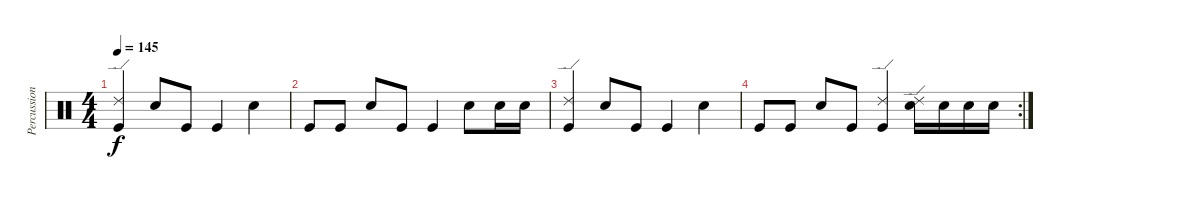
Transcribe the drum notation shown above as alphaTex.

\track ("Percussion" "Percussion") {instrument percussion}
\staff {score}
\articulation defaults
\ts (4 4)
\tempo 145
\clef neutral
\ks c
("Ride (edge) 2" "Kick (hit)").4{dy f} "Snare (hit) 2".8 "Kick (hit)".8 "Kick (hit)".4 "Snare (hit) 2".4 |
"Kick (hit)".8 "Kick (hit)".8 "Snare (hit) 2".8 "Kick (hit)".8 "Kick (hit)".4 "Snare (hit) 2".8 "Snare (hit) 2".16 "Snare (hit) 2".16 |
("Ride (edge) 2" "Kick (hit)").4 "Snare (hit) 2".8 "Kick (hit)".8 "Kick (hit)".4 "Snare (hit) 2".4 |
\rc 2 "Kick (hit)".8 "Kick (hit)".8 "Snare (hit) 2".8 "Kick (hit)".8
("Ride (edge) 2" "Kick (hit)").4 ("Snare (hit) 2" "Ride (edge) 2").16 "Snare (hit) 2".16 "Snare (hit) 2".16 "Snare (hit) 2".16
